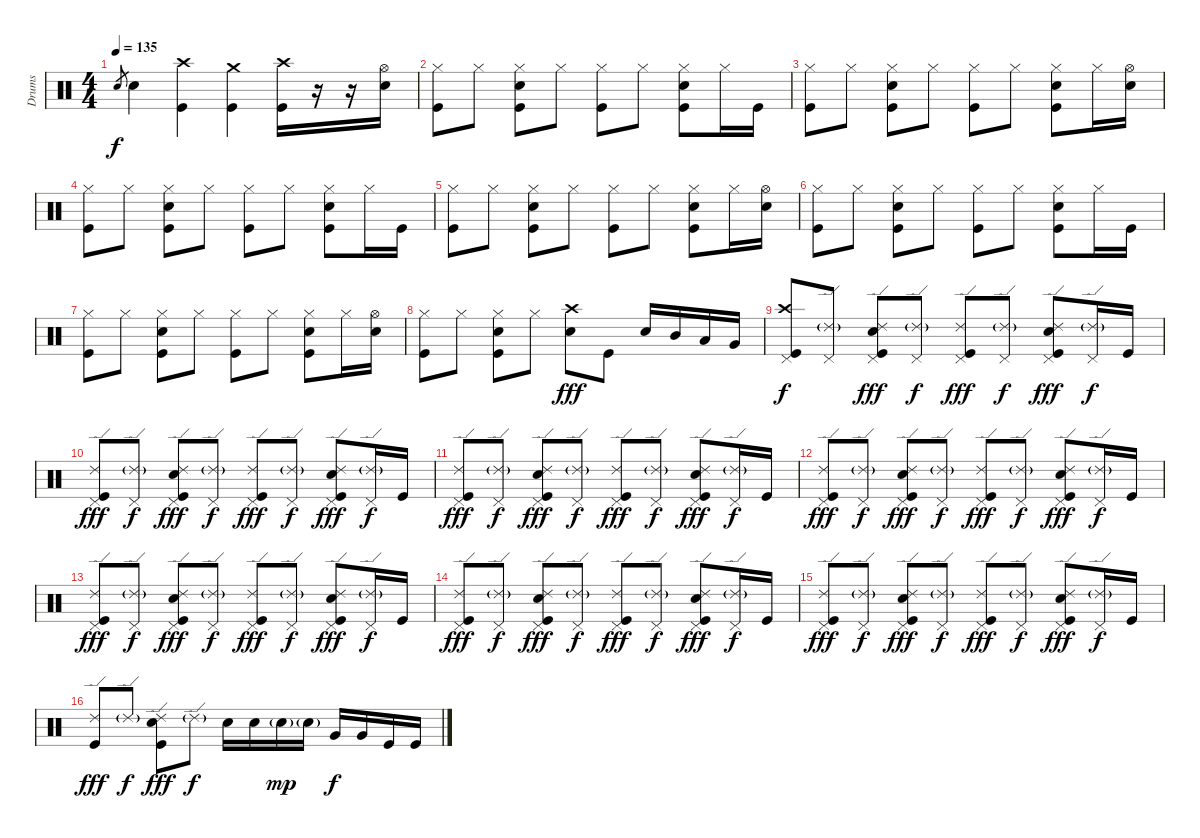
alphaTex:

\track ("Drums" "Drums") {instrument percussion}
\staff {score}
\articulation defaults
\ts (4 4)
\tempo 135
\clef neutral
\ks c "Electric Snare (hit)".8{gr dy f} "Electric Snare (hit)".4
("Kick (hit)" "Crash high (hit)").4 ("Kick (hit)" "Crash medium (hit)").4 ("Kick (hit)" "Crash high (hit)").16 r.16 r.16 ("Electric Snare (hit)" "Hi-Hat (open)").16 |
("Kick (hit)" "Hi-Hat (closed)").8 "Hi-Hat (closed)".8 ("Kick (hit)" "Electric Snare (hit)" "Hi-Hat (closed)").8 "Hi-Hat (closed)".8 ("Kick (hit)" "Hi-Hat (closed)").8 "Hi-Hat (closed)".8 ("Kick (hit)" "Electric Snare (hit)" "Hi-Hat (closed)").8 "Hi-Hat (closed)".16 "Kick (hit)".16 |
("Kick (hit)" "Hi-Hat (closed)").8 "Hi-Hat (closed)".8 ("Kick (hit)" "Electric Snare (hit)" "Hi-Hat (closed)").8 "Hi-Hat (closed)".8 ("Kick (hit)" "Hi-Hat (closed)").8 "Hi-Hat (closed)".8 ("Kick (hit)" "Electric Snare (hit)" "Hi-Hat (closed)").8 "Hi-Hat (closed)".16 ("Electric Snare (hit)" "Hi-Hat (open)").16 |
("Kick (hit)" "Hi-Hat (closed)").8 "Hi-Hat (closed)".8 ("Kick (hit)" "Electric Snare (hit)" "Hi-Hat (closed)").8 "Hi-Hat (closed)".8 ("Kick (hit)" "Hi-Hat (closed)").8 "Hi-Hat (closed)".8 ("Kick (hit)" "Electric Snare (hit)" "Hi-Hat (closed)").8 "Hi-Hat (closed)".16 "Kick (hit)".16 |
("Kick (hit)" "Hi-Hat (closed)").8 "Hi-Hat (closed)".8 ("Kick (hit)" "Electric Snare (hit)" "Hi-Hat (closed)").8 "Hi-Hat (closed)".8 ("Kick (hit)" "Hi-Hat (closed)").8 "Hi-Hat (closed)".8 ("Kick (hit)" "Electric Snare (hit)" "Hi-Hat (closed)").8 "Hi-Hat (closed)".16 ("Electric Snare (hit)" "Hi-Hat (open)").16 |
("Kick (hit)" "Hi-Hat (closed)").8 "Hi-Hat (closed)".8 ("Kick (hit)" "Electric Snare (hit)" "Hi-Hat (closed)").8 "Hi-Hat (closed)".8 ("Kick (hit)" "Hi-Hat (closed)").8 "Hi-Hat (closed)".8 ("Kick (hit)" "Electric Snare (hit)" "Hi-Hat (closed)").8 "Hi-Hat (closed)".16 "Kick (hit)".16 |
("Kick (hit)" "Hi-Hat (closed)").8 "Hi-Hat (closed)".8 ("Kick (hit)" "Electric Snare (hit)" "Hi-Hat (closed)").8 "Hi-Hat (closed)".8 ("Kick (hit)" "Hi-Hat (closed)").8 "Hi-Hat (closed)".8 ("Kick (hit)" "Electric Snare (hit)" "Hi-Hat (closed)").8 "Hi-Hat (closed)".16 ("Electric Snare (hit)" "Hi-Hat (open)").16 |
("Kick (hit)" "Hi-Hat (closed)").8 "Hi-Hat (closed)".8 ("Kick (hit)" "Electric Snare (hit)" "Hi-Hat (closed)").8 "Hi-Hat (closed)".8 ("Electric Snare (hit)" "Crash high (hit)").8{dy fff} "Kick (hit)".8 "Electric Snare (hit)".16 "Mid Tom (hit)".16 "Low Tom (hit)".16 "Very Low Tom (hit)".16 |
("Kick (hit)" "Crash high (hit)" "Pedal Hi-Hat (hit)").8{dy f} ("Ride (edge) 2"{g} "Pedal Hi-Hat (hit)").8 ("Kick (hit)" "Electric Snare (hit)" "Ride (edge) 2" "Pedal Hi-Hat (hit)").8{dy fff} ("Ride (edge) 2"{g} "Pedal Hi-Hat (hit)").8{dy f} ("Kick (hit)" "Ride (edge) 2" "Pedal Hi-Hat (hit)").8{dy fff} ("Ride (edge) 2"{g} "Pedal Hi-Hat (hit)").8{dy f} ("Kick (hit)" "Electric Snare (hit)" "Ride (edge) 2" "Pedal Hi-Hat (hit)").8{dy fff} ("Ride (edge) 2"{g} "Pedal Hi-Hat (hit)").16{dy f} "Kick (hit)".16 |
("Kick (hit)" "Ride (edge) 2" "Pedal Hi-Hat (hit)").8{dy fff} ("Ride (edge) 2"{g} "Pedal Hi-Hat (hit)").8{dy f} ("Kick (hit)" "Electric Snare (hit)" "Ride (edge) 2" "Pedal Hi-Hat (hit)").8{dy fff} ("Ride (edge) 2"{g} "Pedal Hi-Hat (hit)").8{dy f} ("Kick (hit)" "Ride (edge) 2" "Pedal Hi-Hat (hit)").8{dy fff} ("Ride (edge) 2"{g} "Pedal Hi-Hat (hit)").8{dy f} ("Kick (hit)" "Electric Snare (hit)" "Ride (edge) 2" "Pedal Hi-Hat (hit)").8{dy fff} ("Ride (edge) 2"{g} "Pedal Hi-Hat (hit)").16{dy f} "Kick (hit)".16 |
("Kick (hit)" "Ride (edge) 2" "Pedal Hi-Hat (hit)").8{dy fff} ("Ride (edge) 2"{g} "Pedal Hi-Hat (hit)").8{dy f} ("Kick (hit)" "Electric Snare (hit)" "Ride (edge) 2" "Pedal Hi-Hat (hit)").8{dy fff} ("Ride (edge) 2"{g} "Pedal Hi-Hat (hit)").8{dy f} ("Kick (hit)" "Ride (edge) 2" "Pedal Hi-Hat (hit)").8{dy fff} ("Ride (edge) 2"{g} "Pedal Hi-Hat (hit)").8{dy f} ("Kick (hit)" "Electric Snare (hit)" "Ride (edge) 2" "Pedal Hi-Hat (hit)").8{dy fff} ("Ride (edge) 2"{g} "Pedal Hi-Hat (hit)").16{dy f} "Kick (hit)".16 |
("Kick (hit)" "Ride (edge) 2" "Pedal Hi-Hat (hit)").8{dy fff} ("Ride (edge) 2"{g} "Pedal Hi-Hat (hit)").8{dy f} ("Kick (hit)" "Electric Snare (hit)" "Ride (edge) 2" "Pedal Hi-Hat (hit)").8{dy fff} ("Ride (edge) 2"{g} "Pedal Hi-Hat (hit)").8{dy f} ("Kick (hit)" "Ride (edge) 2" "Pedal Hi-Hat (hit)").8{dy fff} ("Ride (edge) 2"{g} "Pedal Hi-Hat (hit)").8{dy f} ("Kick (hit)" "Electric Snare (hit)" "Ride (edge) 2" "Pedal Hi-Hat (hit)").8{dy fff} ("Ride (edge) 2"{g} "Pedal Hi-Hat (hit)").16{dy f} "Kick (hit)".16 |
("Kick (hit)" "Ride (edge) 2" "Pedal Hi-Hat (hit)").8{dy fff} ("Ride (edge) 2"{g} "Pedal Hi-Hat (hit)").8{dy f} ("Kick (hit)" "Electric Snare (hit)" "Ride (edge) 2" "Pedal Hi-Hat (hit)").8{dy fff} ("Ride (edge) 2"{g} "Pedal Hi-Hat (hit)").8{dy f} ("Kick (hit)" "Ride (edge) 2" "Pedal Hi-Hat (hit)").8{dy fff} ("Ride (edge) 2"{g} "Pedal Hi-Hat (hit)").8{dy f} ("Kick (hit)" "Electric Snare (hit)" "Ride (edge) 2" "Pedal Hi-Hat (hit)").8{dy fff} ("Ride (edge) 2"{g} "Pedal Hi-Hat (hit)").16{dy f} "Kick (hit)".16 |
("Kick (hit)" "Ride (edge) 2" "Pedal Hi-Hat (hit)").8{dy fff} ("Ride (edge) 2"{g} "Pedal Hi-Hat (hit)").8{dy f} ("Kick (hit)" "Electric Snare (hit)" "Ride (edge) 2" "Pedal Hi-Hat (hit)").8{dy fff} ("Ride (edge) 2"{g} "Pedal Hi-Hat (hit)").8{dy f} ("Kick (hit)" "Ride (edge) 2" "Pedal Hi-Hat (hit)").8{dy fff} ("Ride (edge) 2"{g} "Pedal Hi-Hat (hit)").8{dy f} ("Kick (hit)" "Electric Snare (hit)" "Ride (edge) 2" "Pedal Hi-Hat (hit)").8{dy fff} ("Ride (edge) 2"{g} "Pedal Hi-Hat (hit)").16{dy f} "Kick (hit)".16 |
("Kick (hit)" "Ride (edge) 2" "Pedal Hi-Hat (hit)").8{dy fff} ("Ride (edge) 2"{g} "Pedal Hi-Hat (hit)").8{dy f} ("Kick (hit)" "Electric Snare (hit)" "Ride (edge) 2" "Pedal Hi-Hat (hit)").8{dy fff} ("Ride (edge) 2"{g} "Pedal Hi-Hat (hit)").8{dy f} ("Kick (hit)" "Ride (edge) 2" "Pedal Hi-Hat (hit)").8{dy fff} ("Ride (edge) 2"{g} "Pedal Hi-Hat (hit)").8{dy f} ("Kick (hit)" "Electric Snare (hit)" "Ride (edge) 2" "Pedal Hi-Hat (hit)").8{dy fff} ("Ride (edge) 2"{g} "Pedal Hi-Hat (hit)").16{dy f} "Kick (hit)".16 |
("Kick (hit)" "Ride (edge) 2").8{dy fff} "Ride (edge) 2"{g}.8{dy f} ("Kick (hit)" "Electric Snare (hit)" "Ride (edge) 2").8{dy fff} "Ride (edge) 2"{g}.8{dy f} "Electric Snare (hit)".16 "Electric Snare (hit)".16 "Electric Snare (hit)"{g}.16{dy mp} "Electric Snare (hit)"{g}.16 "Very Low Tom (hit)".16{dy f} "Very Low Tom (hit)".16 "Kick (hit)".16 "Kick (hit)".16
